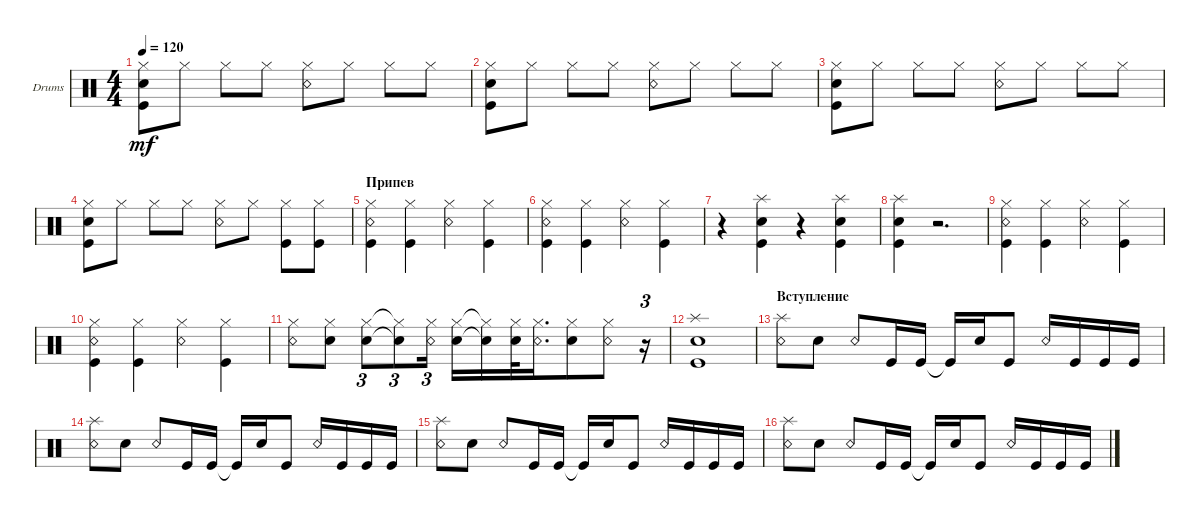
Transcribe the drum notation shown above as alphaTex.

\bracketExtendMode groupsimilarinstruments
\firstSystemTrackNameOrientation horizontal
\otherSystemsTrackNameOrientation horizontal
\track ("БАРАБАНЫ" "Drums") {instrument percussion}
\staff {score}
\articulation defaults
\ts (4 4)
\tempo 120
\clef neutral
\ks c
("Snare (hit) 2" "Hi-Hat (closed)" "Kick (hit)").8{dy mf} "Hi-Hat (closed)".8 "Hi-Hat (closed)".8 "Hi-Hat (closed)".8 ("Hi-Hat (closed)" "Snare (rim shot)").8 "Hi-Hat (closed)".8 "Hi-Hat (closed)".8 "Hi-Hat (closed)".8 |
("Snare (hit) 2" "Hi-Hat (closed)" "Kick (hit)").8 "Hi-Hat (closed)".8 "Hi-Hat (closed)".8 "Hi-Hat (closed)".8 ("Hi-Hat (closed)" "Snare (rim shot)").8 "Hi-Hat (closed)".8 "Hi-Hat (closed)".8 "Hi-Hat (closed)".8 |
("Snare (hit) 2" "Hi-Hat (closed)" "Kick (hit)").8 "Hi-Hat (closed)".8 "Hi-Hat (closed)".8 "Hi-Hat (closed)".8 ("Hi-Hat (closed)" "Snare (rim shot)").8 "Hi-Hat (closed)".8 "Hi-Hat (closed)".8 "Hi-Hat (closed)".8 |
("Snare (hit) 2" "Hi-Hat (closed)" "Kick (hit)").8 "Hi-Hat (closed)".8 "Hi-Hat (closed)".8 "Hi-Hat (closed)".8 ("Hi-Hat (closed)" "Snare (rim shot)").8 "Hi-Hat (closed)".8 ("Hi-Hat (closed)" "Kick (hit)").8 ("Hi-Hat (closed)" "Kick (hit)").8 |
\section ("" "Припев")
("Snare (rim shot)" "Kick (hit)" "Hi-Hat (closed)").4 ("Kick (hit)" "Hi-Hat (closed)").4 ("Snare (rim shot)" "Hi-Hat (closed)").4 ("Kick (hit)" "Hi-Hat (closed)").4 |
("Snare (rim shot)" "Kick (hit)" "Hi-Hat (closed)").4 ("Kick (hit)" "Hi-Hat (closed)").4 ("Snare (rim shot)" "Hi-Hat (closed)").4 ("Kick (hit)" "Hi-Hat (closed)").4 |
r.4 ("Kick (hit)" "Snare (hit) 2" "Splash (hit)").4 r.4 ("Kick (hit)" "Snare (hit) 2" "Splash (hit)").4 |
("Splash (hit)" "Snare (hit) 2" "Kick (hit)").4 r.2{d} |
("Snare (rim shot)" "Kick (hit)" "Hi-Hat (closed)").4 ("Kick (hit)" "Hi-Hat (closed)").4 ("Snare (rim shot)" "Hi-Hat (closed)").4 ("Kick (hit)" "Hi-Hat (closed)").4 |
("Snare (rim shot)" "Kick (hit)" "Hi-Hat (closed)").4 ("Kick (hit)" "Hi-Hat (closed)").4 ("Snare (rim shot)" "Hi-Hat (closed)").4 ("Kick (hit)" "Hi-Hat (closed)").4 |
("Snare (rim shot)" "Hi-Hat (closed)").8 ("Snare (hit) 2" "Hi-Hat (closed)").8 ("Snare (hit) 2" "Hi-Hat (closed)").8{tu (3 2) beam merge} ("Snare (hit) 2"{t} "Hi-Hat (closed)"{t}).8{tu (3 2) beam merge} ("Snare (rim shot)" "Hi-Hat (closed)").16{tu (3 2)} ("Snare (hit) 2" "Hi-Hat (closed)").16{beam merge} ("Snare (hit) 2"{t} "Hi-Hat (closed)"{t}).16{beam merge} ("Snare (hit) 2" "Hi-Hat (closed)").32{beam merge} ("Snare (rim shot)" "Hi-Hat (closed)").16{d} ("Snare (hit) 2" "Hi-Hat (closed)").8{beam merge} ("Snare (rim shot)" "Hi-Hat (closed)").8 r.16{tu (3 2)} |
("Snare (hit) 2" "Kick (hit)" "Splash (hit)").1 |
\section ("" "Вступление")
("Snare (rim shot)" "Splash (hit)").8 "Snare (hit) 2".8 "Snare (rim shot)".8 "Kick (hit)".16 "Kick (hit)".16 "Kick (hit)"{t}.16 "Snare (hit) 2".16 "Kick (hit)".8 "Snare (rim shot)".16 "Kick (hit)".16 "Kick (hit)".16 "Kick (hit)".16 |
("Snare (rim shot)" "Splash (hit)").8 "Snare (hit) 2".8 "Snare (rim shot)".8 "Kick (hit)".16 "Kick (hit)".16 "Kick (hit)"{t}.16 "Snare (hit) 2".16 "Kick (hit)".8 "Snare (rim shot)".16 "Kick (hit)".16 "Kick (hit)".16 "Kick (hit)".16 |
("Snare (rim shot)" "Splash (hit)").8 "Snare (hit) 2".8 "Snare (rim shot)".8 "Kick (hit)".16 "Kick (hit)".16 "Kick (hit)"{t}.16 "Snare (hit) 2".16 "Kick (hit)".8 "Snare (rim shot)".16 "Kick (hit)".16 "Kick (hit)".16 "Kick (hit)".16 |
("Snare (rim shot)" "Splash (hit)").8 "Snare (hit) 2".8 "Snare (rim shot)".8 "Kick (hit)".16 "Kick (hit)".16 "Kick (hit)"{t}.16 "Snare (hit) 2".16 "Kick (hit)".8 "Snare (rim shot)".16 "Kick (hit)".16 "Kick (hit)".16 "Kick (hit)".16
